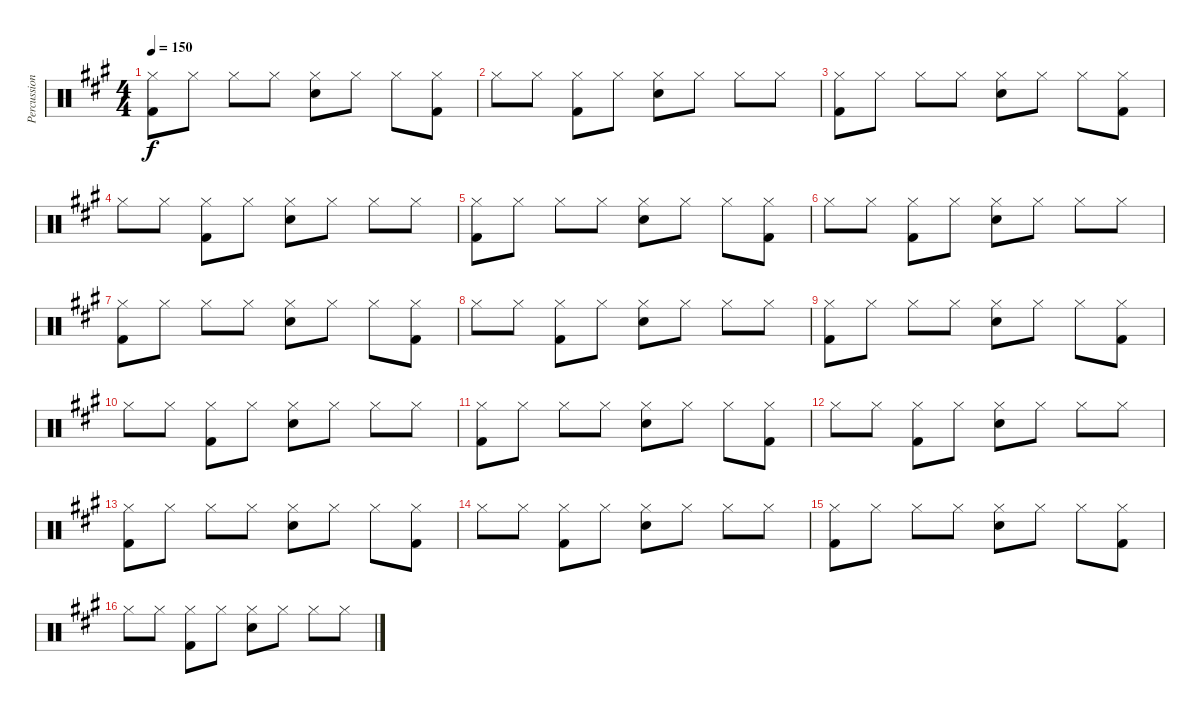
\track ("Percussion" "Percussion") {instrument percussion}
\staff {score}
\articulation defaults
\ts (4 4)
\tempo 150
\clef neutral
\ks a
("Kick (hit) 2" "Hi-Hat (closed)").8{dy f} "Hi-Hat (closed)".8 "Hi-Hat (closed)".8 "Hi-Hat (closed)".8 ("Snare (hit) 2" "Hi-Hat (closed)").8 "Hi-Hat (closed)".8 "Hi-Hat (closed)".8 ("Kick (hit) 2" "Hi-Hat (closed)").8 |
"Hi-Hat (closed)".8 "Hi-Hat (closed)".8 ("Kick (hit) 2" "Hi-Hat (closed)").8 "Hi-Hat (closed)".8 ("Snare (hit) 2" "Hi-Hat (closed)").8 "Hi-Hat (closed)".8 "Hi-Hat (closed)".8 "Hi-Hat (closed)".8 |
("Kick (hit) 2" "Hi-Hat (closed)").8 "Hi-Hat (closed)".8 "Hi-Hat (closed)".8 "Hi-Hat (closed)".8 ("Snare (hit) 2" "Hi-Hat (closed)").8 "Hi-Hat (closed)".8 "Hi-Hat (closed)".8 ("Kick (hit) 2" "Hi-Hat (closed)").8 |
"Hi-Hat (closed)".8 "Hi-Hat (closed)".8 ("Kick (hit) 2" "Hi-Hat (closed)").8 "Hi-Hat (closed)".8 ("Snare (hit) 2" "Hi-Hat (closed)").8 "Hi-Hat (closed)".8 "Hi-Hat (closed)".8 "Hi-Hat (closed)".8 |
("Kick (hit) 2" "Hi-Hat (closed)").8 "Hi-Hat (closed)".8 "Hi-Hat (closed)".8 "Hi-Hat (closed)".8 ("Snare (hit) 2" "Hi-Hat (closed)").8 "Hi-Hat (closed)".8 "Hi-Hat (closed)".8 ("Kick (hit) 2" "Hi-Hat (closed)").8 |
"Hi-Hat (closed)".8 "Hi-Hat (closed)".8 ("Kick (hit) 2" "Hi-Hat (closed)").8 "Hi-Hat (closed)".8 ("Snare (hit) 2" "Hi-Hat (closed)").8 "Hi-Hat (closed)".8 "Hi-Hat (closed)".8 "Hi-Hat (closed)".8 |
("Kick (hit) 2" "Hi-Hat (closed)").8 "Hi-Hat (closed)".8 "Hi-Hat (closed)".8 "Hi-Hat (closed)".8 ("Snare (hit) 2" "Hi-Hat (closed)").8 "Hi-Hat (closed)".8 "Hi-Hat (closed)".8 ("Kick (hit) 2" "Hi-Hat (closed)").8 |
"Hi-Hat (closed)".8 "Hi-Hat (closed)".8 ("Kick (hit) 2" "Hi-Hat (closed)").8 "Hi-Hat (closed)".8 ("Snare (hit) 2" "Hi-Hat (closed)").8 "Hi-Hat (closed)".8 "Hi-Hat (closed)".8 "Hi-Hat (closed)".8 |
("Kick (hit) 2" "Hi-Hat (closed)").8 "Hi-Hat (closed)".8 "Hi-Hat (closed)".8 "Hi-Hat (closed)".8 ("Snare (hit) 2" "Hi-Hat (closed)").8 "Hi-Hat (closed)".8 "Hi-Hat (closed)".8 ("Kick (hit) 2" "Hi-Hat (closed)").8 |
"Hi-Hat (closed)".8 "Hi-Hat (closed)".8 ("Kick (hit) 2" "Hi-Hat (closed)").8 "Hi-Hat (closed)".8 ("Snare (hit) 2" "Hi-Hat (closed)").8 "Hi-Hat (closed)".8 "Hi-Hat (closed)".8 "Hi-Hat (closed)".8 |
("Kick (hit) 2" "Hi-Hat (closed)").8 "Hi-Hat (closed)".8 "Hi-Hat (closed)".8 "Hi-Hat (closed)".8 ("Snare (hit) 2" "Hi-Hat (closed)").8 "Hi-Hat (closed)".8 "Hi-Hat (closed)".8 ("Kick (hit) 2" "Hi-Hat (closed)").8 |
"Hi-Hat (closed)".8 "Hi-Hat (closed)".8 ("Kick (hit) 2" "Hi-Hat (closed)").8 "Hi-Hat (closed)".8 ("Snare (hit) 2" "Hi-Hat (closed)").8 "Hi-Hat (closed)".8 "Hi-Hat (closed)".8 "Hi-Hat (closed)".8 |
("Kick (hit) 2" "Hi-Hat (closed)").8 "Hi-Hat (closed)".8 "Hi-Hat (closed)".8 "Hi-Hat (closed)".8 ("Snare (hit) 2" "Hi-Hat (closed)").8 "Hi-Hat (closed)".8 "Hi-Hat (closed)".8 ("Kick (hit) 2" "Hi-Hat (closed)").8 |
"Hi-Hat (closed)".8 "Hi-Hat (closed)".8 ("Kick (hit) 2" "Hi-Hat (closed)").8 "Hi-Hat (closed)".8 ("Snare (hit) 2" "Hi-Hat (closed)").8 "Hi-Hat (closed)".8 "Hi-Hat (closed)".8 "Hi-Hat (closed)".8 |
("Kick (hit) 2" "Hi-Hat (closed)").8 "Hi-Hat (closed)".8 "Hi-Hat (closed)".8 "Hi-Hat (closed)".8 ("Snare (hit) 2" "Hi-Hat (closed)").8 "Hi-Hat (closed)".8 "Hi-Hat (closed)".8 ("Kick (hit) 2" "Hi-Hat (closed)").8 |
"Hi-Hat (closed)".8 "Hi-Hat (closed)".8 ("Kick (hit) 2" "Hi-Hat (closed)").8 "Hi-Hat (closed)".8 ("Snare (hit) 2" "Hi-Hat (closed)").8 "Hi-Hat (closed)".8 "Hi-Hat (closed)".8 "Hi-Hat (closed)".8
